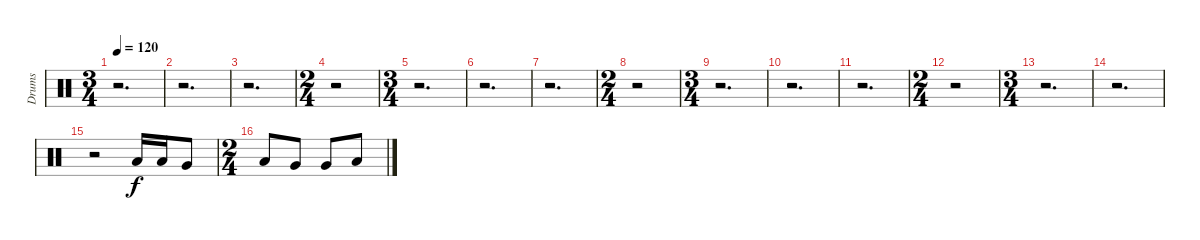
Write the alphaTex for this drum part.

\track ("Drums" "Drums") {instrument percussion}
\staff {score}
\articulation defaults
\ts (3 4)
\tempo 120
\tempo 188
\tempo 120
\clef neutral
\ks c
r.2{d dy f} |
r.2{d} |
r.2{d} |
\ts (2 4)
r.2 |
\ts (3 4)
r.2{d} |
r.2{d} |
r.2{d} |
\ts (2 4)
r.2 |
\ts (3 4)
r.2{d} |
r.2{d} |
r.2{d} |
\ts (2 4)
r.2 |
\ts (3 4)
r.2{d} |
r.2{d} |
r.2 "Low Tom (hit)".16 "Low Tom (hit)".16 "Very Low Tom (hit)".8 |
\ts (2 4)
"Low Tom (hit)".8 "Very Low Tom (hit)".8 "Very Low Tom (hit)".8 "Low Floor Tom (hit)".8
